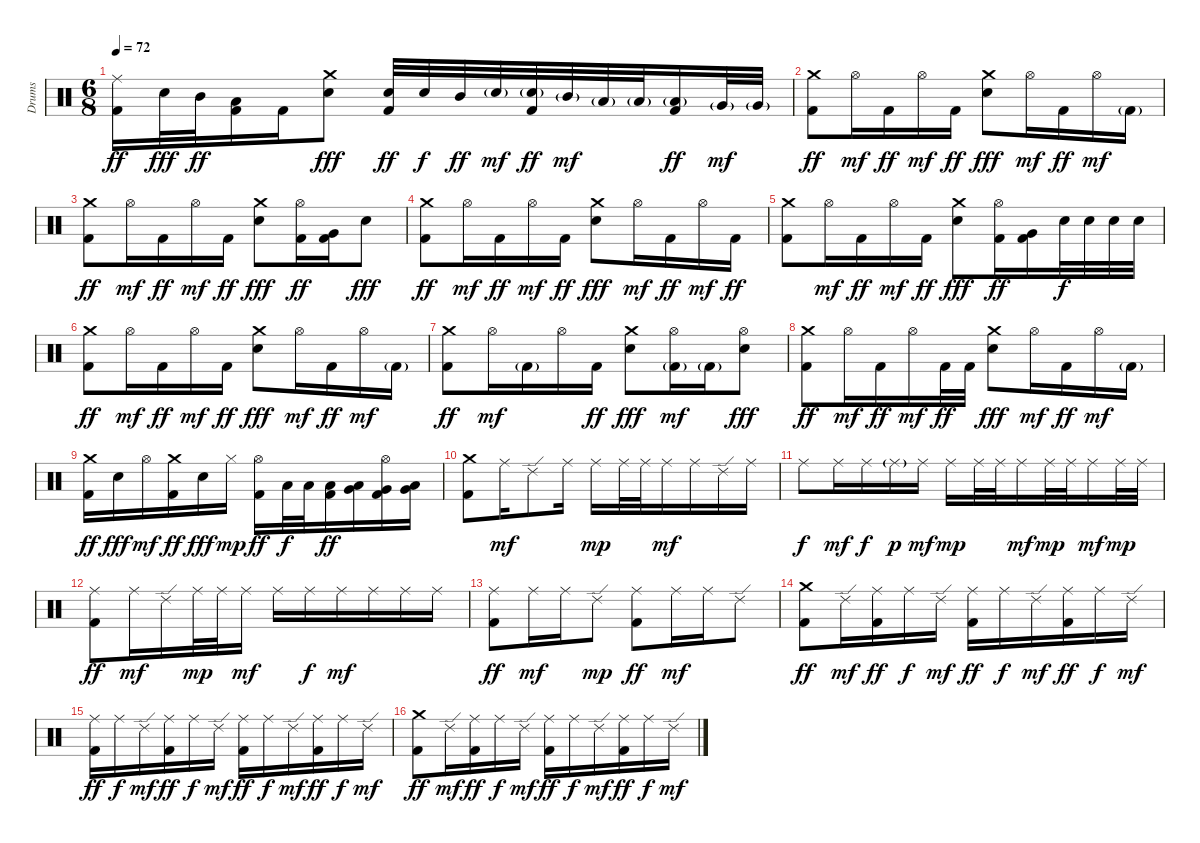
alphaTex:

\track ("Drums" "Drums") {instrument percussion}
\staff {score}
\articulation defaults
\ts (6 8)
\tempo 72
\clef neutral
\ks c
("Ride (middle)" "Kick (hit) 2").16{dy ff} "Snare (hit) 2".32{dy fff} "Mid Tom (hit)".32{dy ff} ("Low Tom (hit)" "Kick (hit) 2").16 "Kick (hit) 2".16 ("Crash medium (hit)" "Snare (hit) 2").8{dy fff} ("Snare (hit) 2" "Kick (hit) 2").32{dy ff} "Snare (hit) 2".32{dy f} "Mid Tom (hit)".32{dy ff} "Snare (hit) 2"{g}.32{dy mf} ("Snare (hit) 2"{g} "Kick (hit) 2").32{dy ff} "Mid Tom (hit)"{g}.32{dy mf} "Low Tom (hit)"{g}.32 "Low Tom (hit)"{g}.32 ("Low Tom (hit)"{g} "Kick (hit) 2").16{dy ff} "Very Low Tom (hit)"{g}.32{dy mf} "Very Low Tom (hit)"{g}.32 |
("Crash medium (hit)" "Kick (hit) 2").8{dy ff} "Hi-Hat (open)".16{dy mf} "Kick (hit) 2".16{dy ff} "Hi-Hat (open)".16{dy mf} "Kick (hit) 2".16{dy ff} ("Crash medium (hit)" "Snare (hit) 2").8{dy fff} "Hi-Hat (open)".16{dy mf} "Kick (hit) 2".16{dy ff} "Hi-Hat (open)".16{dy mf} "Kick (hit) 2"{g}.16 |
("Crash medium (hit)" "Kick (hit) 2").8{dy ff} "Hi-Hat (open)".16{dy mf} "Kick (hit) 2".16{dy ff} "Hi-Hat (open)".16{dy mf} "Kick (hit) 2".16{dy ff} ("Crash medium (hit)" "Snare (hit) 2").8{dy fff} ("Hi-Hat (open)" "Kick (hit) 2").16{dy ff} ("Very Low Tom (hit)" "Kick (hit) 2").16 "Snare (hit) 2".8{dy fff} |
("Crash medium (hit)" "Kick (hit) 2").8{dy ff} "Hi-Hat (open)".16{dy mf} "Kick (hit) 2".16{dy ff} "Hi-Hat (open)".16{dy mf} "Kick (hit) 2".16{dy ff} ("Crash medium (hit)" "Snare (hit) 2").8{dy fff} "Hi-Hat (open)".16{dy mf} "Kick (hit) 2".16{dy ff} "Hi-Hat (open)".16{dy mf} "Kick (hit) 2".16{dy ff} |
("Crash medium (hit)" "Kick (hit) 2").8 "Hi-Hat (open)".16{dy mf} "Kick (hit) 2".16{dy ff} "Hi-Hat (open)".16{dy mf} "Kick (hit) 2".16{dy ff} ("Crash medium (hit)" "Snare (hit) 2").8{dy fff} ("Hi-Hat (open)" "Kick (hit) 2").16{dy ff} ("Very Low Tom (hit)" "Kick (hit) 2").16 "Snare (hit) 2".32{dy f} "Snare (hit) 2".32 "Snare (hit) 2".32 "Snare (hit) 2".32 |
("Crash medium (hit)" "Kick (hit) 2").8{dy ff} "Hi-Hat (open)".16{dy mf} "Kick (hit) 2".16{dy ff} "Hi-Hat (open)".16{dy mf} "Kick (hit) 2".16{dy ff} ("Crash medium (hit)" "Snare (hit) 2").8{dy fff} "Hi-Hat (open)".16{dy mf} "Kick (hit) 2".16{dy ff} "Hi-Hat (open)".16{dy mf} "Kick (hit) 2"{g}.16 |
("Crash medium (hit)" "Kick (hit) 2").8{dy ff} "Hi-Hat (open)".16{dy mf} "Kick (hit) 2"{g}.16 "Hi-Hat (open)".16 "Kick (hit) 2".16{dy ff} ("Crash medium (hit)" "Snare (hit) 2").8{dy fff} ("Hi-Hat (open)" "Kick (hit) 2"{g}).16{dy mf} "Kick (hit) 2"{g}.16 ("Hi-Hat (open)" "Snare (hit) 2").8{dy fff} |
("Crash medium (hit)" "Kick (hit) 2").8{dy ff} "Hi-Hat (open)".16{dy mf} "Kick (hit) 2".16{dy ff} "Hi-Hat (open)".16{dy mf} "Kick (hit) 2".32{dy ff} "Kick (hit) 2".32 ("Crash medium (hit)" "Snare (hit) 2").8{dy fff} "Hi-Hat (open)".16{dy mf} "Kick (hit) 2".16{dy ff} "Hi-Hat (open)".16{dy mf} "Kick (hit) 2"{g}.16 |
("Crash medium (hit)" "Kick (hit) 2").16{dy ff} "Snare (hit) 2".16{dy fff} "Hi-Hat (open)".16{dy mf} ("Crash medium (hit)" "Kick (hit) 2").16{dy ff} "Snare (hit) 2".16{dy fff} "Hi-Hat (closed)".16{dy mp} ("Hi-Hat (open)" "Kick (hit) 2").16{dy ff} "Low Tom (hit)".32{dy f} "Low Tom (hit)".32 ("Low Tom (hit)" "Kick (hit) 2").16{dy ff} ("Low Tom (hit)" "Very Low Tom (hit)").16 ("Hi-Hat (open)" "Very Low Tom (hit)" "Kick (hit) 2").16 ("Low Tom (hit)" "Very Low Tom (hit)").16 |
("Crash medium (hit)" "Kick (hit) 2").8 "Ride (middle)".16{dy mf} "Ride (edge) 2".8 "Ride (middle)".16 "Ride (middle)".16{dy mp} "Ride (middle)".32 "Ride (middle)".32 "Ride (middle)".16{dy mf} "Ride (middle)".16 "Ride (edge) 2".16 "Ride (middle)".16 |
"Ride (middle)".8{dy f} "Ride (middle)".16{dy mf} "Ride (middle)".16{dy f} "Ride (middle)"{g}.16{dy p} "Ride (middle)".16{dy mf} "Ride (middle)".16{dy mp} "Ride (middle)".32 "Ride (middle)".32 "Ride (middle)".16{dy mf} "Ride (middle)".32{dy mp} "Ride (middle)".32 "Ride (middle)".16{dy mf} "Ride (middle)".32{dy mp} "Ride (middle)".32 |
("Ride (middle)" "Kick (hit) 2").8{dy ff} "Ride (middle)".16{dy mf} "Ride (edge) 2".16 "Ride (middle)".32{dy mp} "Ride (middle)".32 "Ride (middle)".16{dy mf} "Ride (middle)".16 "Ride (middle)".16{dy f} "Ride (middle)".16{dy mf} "Ride (middle)".16 "Ride (middle)".16 "Ride (middle)".16 |
("Ride (middle)" "Kick (hit) 2").8{dy ff} "Ride (middle)".16{dy mf} "Ride (middle)".16 "Ride (edge) 2".8{dy mp} ("Ride (middle)" "Kick (hit) 2").8{dy ff} "Ride (middle)".16{dy mf} "Ride (middle)".16 "Ride (edge) 2".8 |
("Crash medium (hit)" "Kick (hit) 2").8{dy ff} "Ride (edge) 2".16{dy mf} ("Ride (middle)" "Kick (hit) 2").16{dy ff} "Ride (middle)".16{dy f} "Ride (edge) 2".16{dy mf} ("Ride (middle)" "Kick (hit) 2").16{dy ff} "Ride (middle)".16{dy f} "Ride (edge) 2".16{dy mf} ("Ride (middle)" "Kick (hit) 2").16{dy ff} "Ride (middle)".16{dy f} "Ride (edge) 2".16{dy mf} |
("Ride (middle)" "Kick (hit) 2").16{dy ff} "Ride (middle)".16{dy f} "Ride (edge) 2".16{dy mf} ("Ride (middle)" "Kick (hit) 2").16{dy ff} "Ride (middle)".16{dy f} "Ride (edge) 2".16{dy mf} ("Ride (middle)" "Kick (hit) 2").16{dy ff} "Ride (middle)".16{dy f} "Ride (edge) 2".16{dy mf} ("Ride (middle)" "Kick (hit) 2").16{dy ff} "Ride (middle)".16{dy f} "Ride (edge) 2".16{dy mf} |
("Crash medium (hit)" "Kick (hit) 2").8{dy ff} "Ride (edge) 2".16{dy mf} ("Ride (middle)" "Kick (hit) 2").16{dy ff} "Ride (middle)".16{dy f} "Ride (edge) 2".16{dy mf} ("Ride (middle)" "Kick (hit) 2").16{dy ff} "Ride (middle)".16{dy f} "Ride (edge) 2".16{dy mf} ("Ride (middle)" "Kick (hit) 2").16{dy ff} "Ride (middle)".16{dy f} "Ride (edge) 2".16{dy mf}
